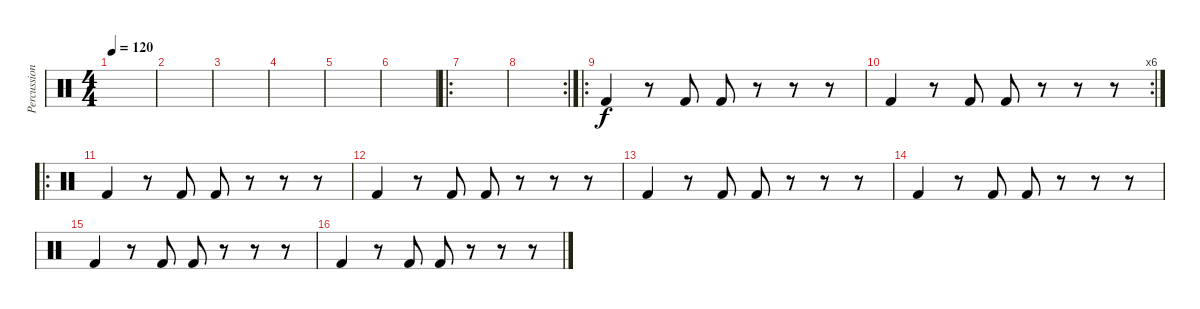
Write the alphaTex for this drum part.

\track ("Percussion" "Percussion") {instrument percussion}
\staff {score}
\articulation defaults
\ts (4 4)
\tempo 120
\clef neutral
\ks c
|
|
|
|
|
|
\ro
|
\rc 2
|
\ro "Kick (hit) 2".4
r.8 "Kick (hit) 2".8 "Kick (hit) 2".8 r.8 r.8 r.8 |
\rc 6 "Kick (hit) 2".4
r.8 "Kick (hit) 2".8 "Kick (hit) 2".8 r.8 r.8 r.8 |
\ro "Kick (hit) 2".4
r.8 "Kick (hit) 2".8 "Kick (hit) 2".8 r.8 r.8 r.8 |
"Kick (hit) 2".4 r.8 "Kick (hit) 2".8 "Kick (hit) 2".8 r.8 r.8 r.8 |
"Kick (hit) 2".4 r.8 "Kick (hit) 2".8 "Kick (hit) 2".8 r.8 r.8 r.8 |
"Kick (hit) 2".4 r.8 "Kick (hit) 2".8 "Kick (hit) 2".8 r.8 r.8 r.8 |
"Kick (hit) 2".4 r.8 "Kick (hit) 2".8 "Kick (hit) 2".8 r.8 r.8 r.8 |
"Kick (hit) 2".4 r.8 "Kick (hit) 2".8 "Kick (hit) 2".8 r.8 r.8 r.8
